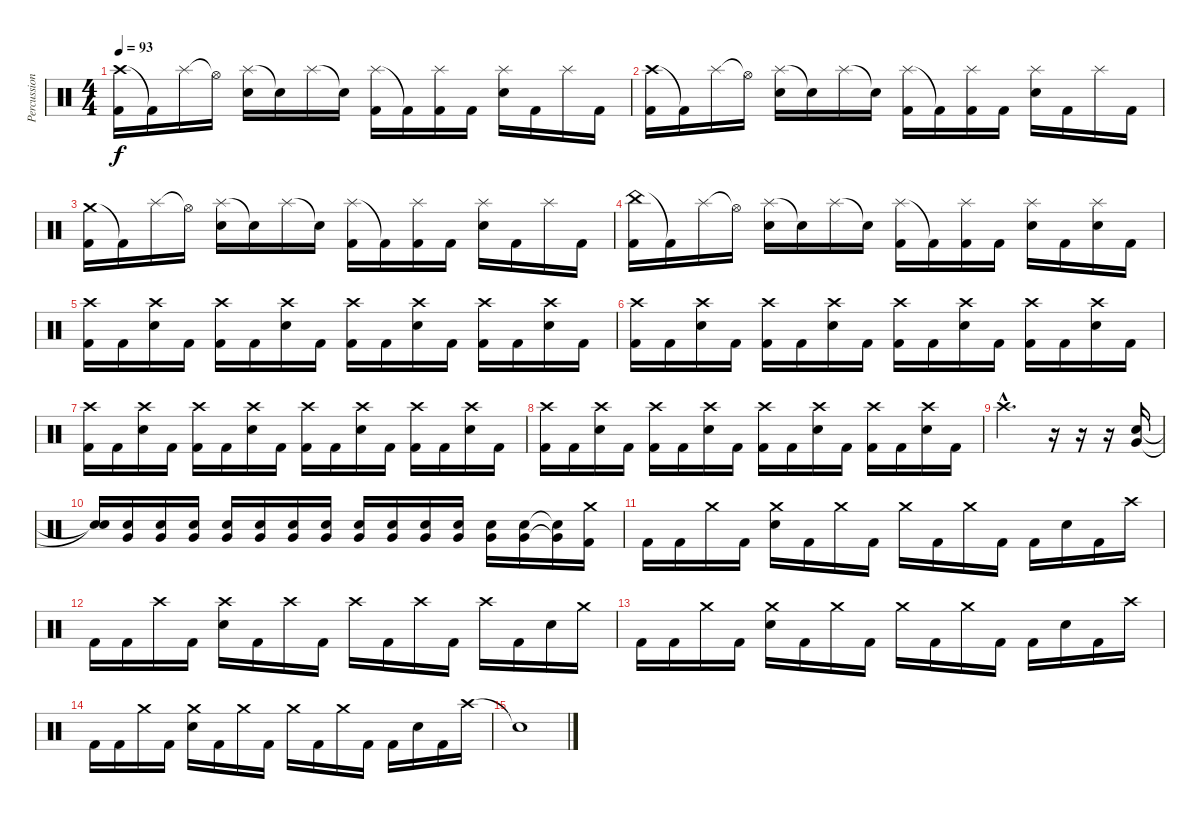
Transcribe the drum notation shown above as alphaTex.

\track ("Percussion" "Percussion") {instrument percussion}
\staff {score}
\articulation defaults
\ts (4 4)
\tempo 93
\clef neutral
\ks c
("Crash high (hit)" "Kick (hit) 2").16{dy f} "Kick (hit) 2"{t}.16 "Splash (hit)".16 "Hi-Hat (open)"{t}.16 ("Splash (hit)" "Electric Snare (hit)").16 "Snare (hit)"{t}.16 "Splash (hit)".16 "Snare (hit)"{t}.16 ("Splash (hit)" "Kick (hit) 2").16 "Kick (hit) 2"{t}.16 ("Splash (hit)" "Kick (hit) 2").16 "Kick (hit) 2".16 ("Electric Snare (hit)" "Splash (hit)").16 "Kick (hit) 2".16 "Splash (hit)".16 "Kick (hit) 2".16 |
("Crash high (hit)" "Kick (hit) 2").16 "Kick (hit) 2"{t}.16 "Splash (hit)".16 "Hi-Hat (open)"{t}.16 ("Splash (hit)" "Electric Snare (hit)").16 "Snare (hit)"{t}.16 "Splash (hit)".16 "Snare (hit)"{t}.16 ("Splash (hit)" "Kick (hit) 2").16 "Kick (hit) 2"{t}.16 ("Splash (hit)" "Kick (hit) 2").16 "Kick (hit) 2".16 ("Electric Snare (hit)" "Splash (hit)").16 "Kick (hit) 2".16 "Splash (hit)".16 "Kick (hit) 2".16 |
("Crash medium (hit)" "Kick (hit) 2").16 "Kick (hit) 2"{t}.16 "Splash (hit)".16 "Hi-Hat (open)"{t}.16 ("Splash (hit)" "Electric Snare (hit)").16 "Snare (hit)"{t}.16 "Splash (hit)".16 "Snare (hit)"{t}.16 ("Splash (hit)" "Kick (hit) 2").16 "Kick (hit) 2"{t}.16 ("Splash (hit)" "Kick (hit) 2").16 "Kick (hit) 2".16 ("Electric Snare (hit)" "Splash (hit)").16 "Kick (hit) 2".16 "Splash (hit)".16 "Kick (hit) 2".16 |
("China (hit)" "Kick (hit) 2").16 "Kick (hit) 2"{t}.16 "Splash (hit)".16 "Hi-Hat (open)"{t}.16 ("Splash (hit)" "Electric Snare (hit)").16 "Snare (hit)"{t}.16 "Splash (hit)".16 "Snare (hit)"{t}.16 ("Splash (hit)" "Kick (hit) 2").16 "Kick (hit) 2"{t}.16 ("Splash (hit)" "Kick (hit) 2").16 "Kick (hit) 2".16 ("Electric Snare (hit)" "Splash (hit)").16 "Kick (hit) 2".16 ("Electric Snare (hit)" "Splash (hit)").16 "Kick (hit) 2".16 |
("Crash high (hit)" "Kick (hit) 2").16 "Kick (hit) 2".16 ("Electric Snare (hit)" "Crash high (hit)").16 "Kick (hit) 2".16 ("Crash high (hit)" "Kick (hit) 2").16 "Kick (hit) 2".16 ("Electric Snare (hit)" "Crash high (hit)").16 "Kick (hit) 2".16 ("Crash high (hit)" "Kick (hit) 2").16 "Kick (hit) 2".16 ("Electric Snare (hit)" "Crash high (hit)").16 "Kick (hit) 2".16 ("Crash high (hit)" "Kick (hit) 2").16 "Kick (hit) 2".16 ("Electric Snare (hit)" "Crash high (hit)").16 "Kick (hit) 2".16 |
("Crash high (hit)" "Kick (hit) 2").16 "Kick (hit) 2".16 ("Electric Snare (hit)" "Crash high (hit)").16 "Kick (hit) 2".16 ("Crash high (hit)" "Kick (hit) 2").16 "Kick (hit) 2".16 ("Electric Snare (hit)" "Crash high (hit)").16 "Kick (hit) 2".16 ("Crash high (hit)" "Kick (hit) 2").16 "Kick (hit) 2".16 ("Electric Snare (hit)" "Crash high (hit)").16 "Kick (hit) 2".16 ("Crash high (hit)" "Kick (hit) 2").16 "Kick (hit) 2".16 ("Electric Snare (hit)" "Crash high (hit)").16 "Kick (hit) 2".16 |
("Crash high (hit)" "Kick (hit) 2").16 "Kick (hit) 2".16 ("Electric Snare (hit)" "Crash high (hit)").16 "Kick (hit) 2".16 ("Crash high (hit)" "Kick (hit) 2").16 "Kick (hit) 2".16 ("Electric Snare (hit)" "Crash high (hit)").16 "Kick (hit) 2".16 ("Crash high (hit)" "Kick (hit) 2").16 "Kick (hit) 2".16 ("Electric Snare (hit)" "Crash high (hit)").16 "Kick (hit) 2".16 ("Crash high (hit)" "Kick (hit) 2").16 "Kick (hit) 2".16 ("Electric Snare (hit)" "Crash high (hit)").16 "Kick (hit) 2".16 |
("Crash high (hit)" "Kick (hit) 2").16 "Kick (hit) 2".16 ("Electric Snare (hit)" "Crash high (hit)").16 "Kick (hit) 2".16 ("Crash high (hit)" "Kick (hit) 2").16 "Kick (hit) 2".16 ("Electric Snare (hit)" "Crash high (hit)").16 "Kick (hit) 2".16 ("Crash high (hit)" "Kick (hit) 2").16 "Kick (hit) 2".16 ("Electric Snare (hit)" "Crash high (hit)").16 "Kick (hit) 2".16 ("Crash high (hit)" "Kick (hit) 2").16 "Kick (hit) 2".16 ("Electric Snare (hit)" "Crash high (hit)").16 "Kick (hit) 2".16 |
"Crash high (hit)"{hac}.2{d} r.16 r.16 r.16 ("Electric Snare (hit)" "Very Low Tom (hit)").16 |
("Snare (hit)"{t} "Snare (hit)"{t}).16 ("Very Low Tom (hit)" "Electric Snare (hit)").16 ("Very Low Tom (hit)" "Electric Snare (hit)").16 ("Very Low Tom (hit)" "Electric Snare (hit)").16 ("Very Low Tom (hit)" "Electric Snare (hit)").16 ("Very Low Tom (hit)" "Electric Snare (hit)").16 ("Very Low Tom (hit)" "Electric Snare (hit)").16 ("Very Low Tom (hit)" "Electric Snare (hit)").16 ("Very Low Tom (hit)" "Electric Snare (hit)").16 ("Very Low Tom (hit)" "Electric Snare (hit)").16 ("Very Low Tom (hit)" "Electric Snare (hit)").16 ("Very Low Tom (hit)" "Electric Snare (hit)").16 ("Very Low Tom (hit)" "Electric Snare (hit)").16 ("Very Low Tom (hit)" "Electric Snare (hit)").16 ("Very Low Tom (hit)"{t} "Electric Snare (hit)"{t}).16 ("Crash medium (hit)" "Kick (hit) 2").16 |
"Kick (hit) 2".16 "Kick (hit) 2".16 "Crash medium (hit)".16 "Kick (hit) 2".16 ("Crash medium (hit)" "Electric Snare (hit)").16 "Kick (hit) 2".16 "Crash medium (hit)".16 "Kick (hit) 2".16 "Crash medium (hit)".16 "Kick (hit) 2".16 "Crash medium (hit)".16 "Kick (hit) 2".16 "Kick (hit) 2".16 "Electric Snare (hit)".16 "Kick (hit) 2".16 "Crash high (hit)".16 |
"Kick (hit) 2".16 "Kick (hit) 2".16 "Crash high (hit)".16 "Kick (hit) 2".16 ("Crash high (hit)" "Electric Snare (hit)").16 "Kick (hit) 2".16 "Crash high (hit)".16 "Kick (hit) 2".16 "Crash high (hit)".16 "Kick (hit) 2".16 "Crash high (hit)".16 "Kick (hit) 2".16 "Crash high (hit)".16 "Kick (hit) 2".16 "Electric Snare (hit)".16 "Crash medium (hit)".16 |
"Kick (hit) 2".16 "Kick (hit) 2".16 "Crash medium (hit)".16 "Kick (hit) 2".16 ("Crash medium (hit)" "Electric Snare (hit)").16 "Kick (hit) 2".16 "Crash medium (hit)".16 "Kick (hit) 2".16 "Crash medium (hit)".16 "Kick (hit) 2".16 "Crash medium (hit)".16 "Kick (hit) 2".16 "Kick (hit) 2".16 "Electric Snare (hit)".16 "Kick (hit) 2".16 "Crash high (hit)".16 |
"Kick (hit) 2".16 "Kick (hit) 2".16 "Crash medium (hit)".16 "Kick (hit) 2".16 ("Crash medium (hit)" "Electric Snare (hit)").16 "Kick (hit) 2".16 "Crash medium (hit)".16 "Kick (hit) 2".16 "Crash medium (hit)".16 "Kick (hit) 2".16 "Crash medium (hit)".16 "Kick (hit) 2".16 "Kick (hit) 2".16 "Electric Snare (hit)".16 "Kick (hit) 2".16 "Crash high (hit)".16 |
"Snare (hit)"{t}.1
